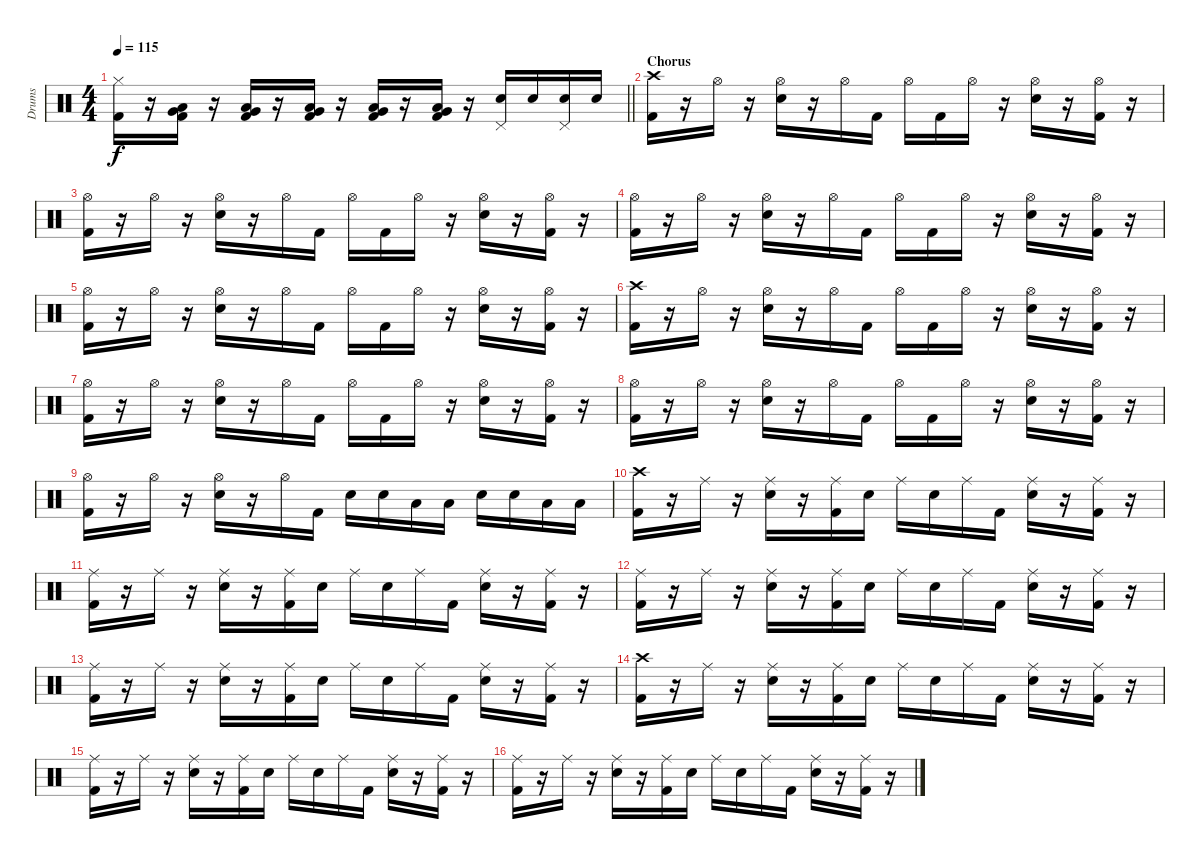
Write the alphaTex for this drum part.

\track ("Drums" "Drums") {instrument percussion}
\staff {score}
\articulation defaults
\ts (4 4)
\tempo 115
\clef neutral
\barLineRight lightlight
\ks c
("Hi-Hat (closed)" "Kick (hit) 2").16{dy f} r.16 ("Low Tom (hit)" "Very Low Tom (hit)" "Kick (hit) 2").16 r.16 ("Low Tom (hit)" "Very Low Tom (hit)" "Kick (hit) 2").16 r.16 ("Low Tom (hit)" "Very Low Tom (hit)" "Kick (hit) 2").16 r.16 ("Low Tom (hit)" "Very Low Tom (hit)" "Kick (hit) 2").16 r.16 ("Low Tom (hit)" "Very Low Tom (hit)" "Kick (hit) 2").16 r.16 ("Pedal Hi-Hat (hit)" "Snare (hit) 2").16 "Snare (hit) 2".16 ("Pedal Hi-Hat (hit)" "Snare (hit) 2").16 "Snare (hit) 2".16 |
\section ("" "Chorus")
("Crash high (hit)" "Kick (hit) 2").16 r.16 "Hi-Hat (open)".16 r.16 ("Hi-Hat (open)" "Snare (hit) 2").16 r.16 "Hi-Hat (open)".16 "Kick (hit) 2".16 "Hi-Hat (open)".16 "Kick (hit) 2".16 "Hi-Hat (open)".16 r.16 ("Hi-Hat (open)" "Snare (hit) 2").16 r.16 ("Hi-Hat (open)" "Kick (hit) 2").16 r.16 |
("Hi-Hat (open)" "Kick (hit) 2").16 r.16 "Hi-Hat (open)".16 r.16 ("Hi-Hat (open)" "Snare (hit) 2").16 r.16 "Hi-Hat (open)".16 "Kick (hit) 2".16 "Hi-Hat (open)".16 "Kick (hit) 2".16 "Hi-Hat (open)".16 r.16 ("Hi-Hat (open)" "Snare (hit) 2").16 r.16 ("Hi-Hat (open)" "Kick (hit) 2").16 r.16 |
("Hi-Hat (open)" "Kick (hit) 2").16 r.16 "Hi-Hat (open)".16 r.16 ("Hi-Hat (open)" "Snare (hit) 2").16 r.16 "Hi-Hat (open)".16 "Kick (hit) 2".16 "Hi-Hat (open)".16 "Kick (hit) 2".16 "Hi-Hat (open)".16 r.16 ("Hi-Hat (open)" "Snare (hit) 2").16 r.16 ("Hi-Hat (open)" "Kick (hit) 2").16 r.16 |
("Hi-Hat (open)" "Kick (hit) 2").16 r.16 "Hi-Hat (open)".16 r.16 ("Hi-Hat (open)" "Snare (hit) 2").16 r.16 "Hi-Hat (open)".16 "Kick (hit) 2".16 "Hi-Hat (open)".16 "Kick (hit) 2".16 "Hi-Hat (open)".16 r.16 ("Hi-Hat (open)" "Snare (hit) 2").16 r.16 ("Hi-Hat (open)" "Kick (hit) 2").16 r.16 |
("Crash high (hit)" "Kick (hit) 2").16 r.16 "Hi-Hat (open)".16 r.16 ("Hi-Hat (open)" "Snare (hit) 2").16 r.16 "Hi-Hat (open)".16 "Kick (hit) 2".16 "Hi-Hat (open)".16 "Kick (hit) 2".16 "Hi-Hat (open)".16 r.16 ("Hi-Hat (open)" "Snare (hit) 2").16 r.16 ("Hi-Hat (open)" "Kick (hit) 2").16 r.16 |
("Hi-Hat (open)" "Kick (hit) 2").16 r.16 "Hi-Hat (open)".16 r.16 ("Hi-Hat (open)" "Snare (hit) 2").16 r.16 "Hi-Hat (open)".16 "Kick (hit) 2".16 "Hi-Hat (open)".16 "Kick (hit) 2".16 "Hi-Hat (open)".16 r.16 ("Hi-Hat (open)" "Snare (hit) 2").16 r.16 ("Hi-Hat (open)" "Kick (hit) 2").16 r.16 |
("Hi-Hat (open)" "Kick (hit) 2").16 r.16 "Hi-Hat (open)".16 r.16 ("Hi-Hat (open)" "Snare (hit) 2").16 r.16 "Hi-Hat (open)".16 "Kick (hit) 2".16 "Hi-Hat (open)".16 "Kick (hit) 2".16 "Hi-Hat (open)".16 r.16 ("Hi-Hat (open)" "Snare (hit) 2").16 r.16 ("Hi-Hat (open)" "Kick (hit) 2").16 r.16 |
("Hi-Hat (open)" "Kick (hit) 2").16 r.16 "Hi-Hat (open)".16 r.16 ("Hi-Hat (open)" "Snare (hit) 2").16 r.16 "Hi-Hat (open)".16 "Kick (hit) 2".16 "Snare (hit) 2".16 "Snare (hit) 2".16 "Low Tom (hit)".16 "Low Tom (hit)".16 "Snare (hit) 2".16 "Snare (hit) 2".16 "Low Tom (hit)".16 "Low Tom (hit)".16 |
("Crash high (hit)" "Kick (hit) 2").16 r.16 "Ride (middle)".16 r.16 ("Ride (middle)" "Snare (hit) 2").16 r.16 ("Ride (middle)" "Kick (hit) 2").16 "Snare (hit) 2".16 "Ride (middle)".16 "Snare (hit) 2".16 "Ride (middle)".16 "Kick (hit) 2".16 ("Ride (middle)" "Snare (hit) 2").16 r.16 ("Ride (middle)" "Kick (hit) 2").16 r.16 |
("Ride (middle)" "Kick (hit) 2").16 r.16 "Ride (middle)".16 r.16 ("Ride (middle)" "Snare (hit) 2").16 r.16 ("Ride (middle)" "Kick (hit) 2").16 "Snare (hit) 2".16 "Ride (middle)".16 "Snare (hit) 2".16 "Ride (middle)".16 "Kick (hit) 2".16 ("Ride (middle)" "Snare (hit) 2").16 r.16 ("Ride (middle)" "Kick (hit) 2").16 r.16 |
("Ride (middle)" "Kick (hit) 2").16 r.16 "Ride (middle)".16 r.16 ("Ride (middle)" "Snare (hit) 2").16 r.16 ("Ride (middle)" "Kick (hit) 2").16 "Snare (hit) 2".16 "Ride (middle)".16 "Snare (hit) 2".16 "Ride (middle)".16 "Kick (hit) 2".16 ("Ride (middle)" "Snare (hit) 2").16 r.16 ("Ride (middle)" "Kick (hit) 2").16 r.16 |
("Ride (middle)" "Kick (hit) 2").16 r.16 "Ride (middle)".16 r.16 ("Ride (middle)" "Snare (hit) 2").16 r.16 ("Ride (middle)" "Kick (hit) 2").16 "Snare (hit) 2".16 "Ride (middle)".16 "Snare (hit) 2".16 "Ride (middle)".16 "Kick (hit) 2".16 ("Ride (middle)" "Snare (hit) 2").16 r.16 ("Ride (middle)" "Kick (hit) 2").16 r.16 |
("Crash high (hit)" "Kick (hit) 2").16 r.16 "Ride (middle)".16 r.16 ("Ride (middle)" "Snare (hit) 2").16 r.16 ("Ride (middle)" "Kick (hit) 2").16 "Snare (hit) 2".16 "Ride (middle)".16 "Snare (hit) 2".16 "Ride (middle)".16 "Kick (hit) 2".16 ("Ride (middle)" "Snare (hit) 2").16 r.16 ("Ride (middle)" "Kick (hit) 2").16 r.16 |
("Ride (middle)" "Kick (hit) 2").16 r.16 "Ride (middle)".16 r.16 ("Ride (middle)" "Snare (hit) 2").16 r.16 ("Ride (middle)" "Kick (hit) 2").16 "Snare (hit) 2".16 "Ride (middle)".16 "Snare (hit) 2".16 "Ride (middle)".16 "Kick (hit) 2".16 ("Ride (middle)" "Snare (hit) 2").16 r.16 ("Ride (middle)" "Kick (hit) 2").16 r.16 |
("Ride (middle)" "Kick (hit) 2").16 r.16 "Ride (middle)".16 r.16 ("Ride (middle)" "Snare (hit) 2").16 r.16 ("Ride (middle)" "Kick (hit) 2").16 "Snare (hit) 2".16 "Ride (middle)".16 "Snare (hit) 2".16 "Ride (middle)".16 "Kick (hit) 2".16 ("Ride (middle)" "Snare (hit) 2").16 r.16 ("Ride (middle)" "Kick (hit) 2").16 r.16
